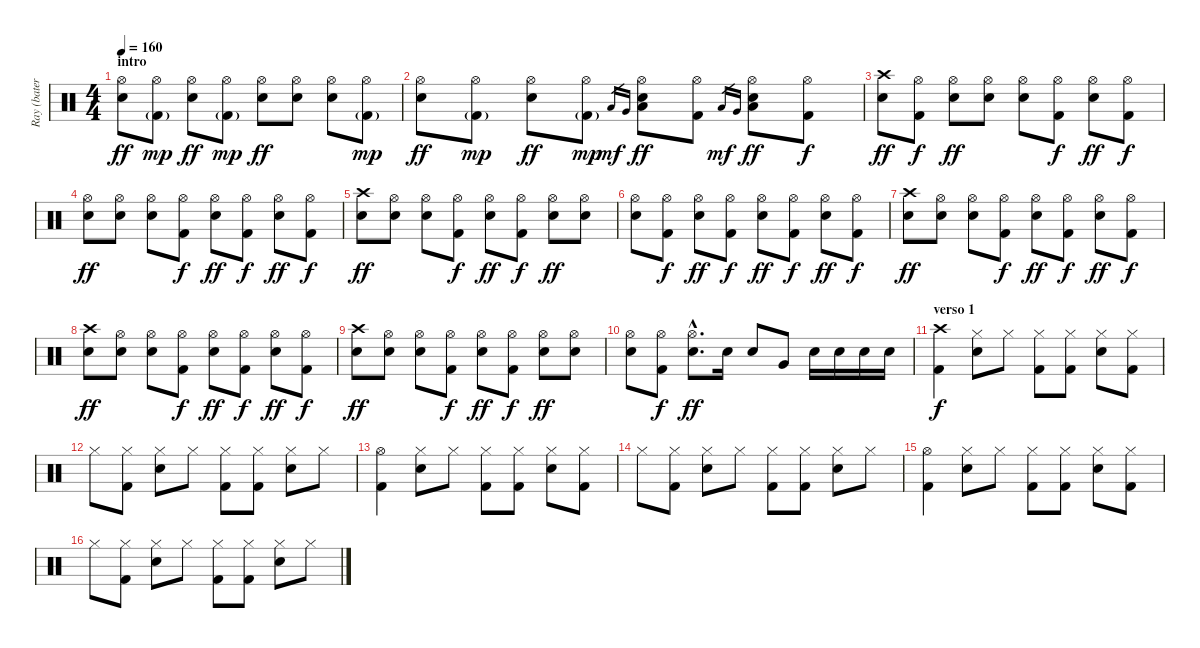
\track ("Ray (batería)" "Ray (bater") {instrument percussion}
\staff {score}
\articulation defaults
\ts (4 4)
\section ("" "intro")
\tempo 160
\clef neutral
\ks c
("Hi-Hat (open)" "Snare (hit) 2").8{dy ff} ("Hi-Hat (open)" "Kick (hit) 2"{g}).8{dy mp} ("Hi-Hat (open)" "Snare (hit) 2").8{dy ff} ("Hi-Hat (open)" "Kick (hit) 2"{g}).8{dy mp} ("Hi-Hat (open)" "Snare (hit) 2").8{dy ff} ("Hi-Hat (open)" "Snare (hit) 2").8 ("Hi-Hat (open)" "Snare (hit) 2").8 ("Hi-Hat (open)" "Kick (hit) 2"{g}).8{dy mp} |
("Hi-Hat (open)" "Snare (hit) 2").8{dy ff} ("Hi-Hat (open)" "Kick (hit) 2"{g}).8{dy mp} ("Hi-Hat (open)" "Snare (hit) 2").8{dy ff} ("Hi-Hat (open)" "Kick (hit) 2"{g}).8{dy mp} "Low Tom (hit)".16{gr dy mf} "Very Low Tom (hit)".16{gr} ("Hi-Hat (open)" "Snare (hit) 2" "Low Floor Tom (hit)").8{dy ff} ("Hi-Hat (open)" "Kick (hit) 2").8 "Low Tom (hit)".16{gr dy mf} "Very Low Tom (hit)".16{gr} ("Hi-Hat (open)" "Snare (hit) 2" "Low Floor Tom (hit)").8{dy ff} ("Hi-Hat (open)" "Kick (hit) 2").8{dy f} |
("Crash high (hit)" "Snare (hit) 2").8{dy ff} ("Hi-Hat (open)" "Kick (hit) 2").8{dy f} ("Hi-Hat (open)" "Snare (hit) 2").8{dy ff} ("Hi-Hat (open)" "Snare (hit) 2").8 ("Hi-Hat (open)" "Snare (hit) 2").8 ("Hi-Hat (open)" "Kick (hit) 2").8{dy f} ("Hi-Hat (open)" "Snare (hit) 2").8{dy ff} ("Hi-Hat (open)" "Kick (hit) 2").8{dy f} |
("Hi-Hat (open)" "Snare (hit) 2").8{dy ff} ("Hi-Hat (open)" "Snare (hit) 2").8 ("Hi-Hat (open)" "Snare (hit) 2").8 ("Hi-Hat (open)" "Kick (hit) 2").8{dy f} ("Hi-Hat (open)" "Snare (hit) 2").8{dy ff} ("Hi-Hat (open)" "Kick (hit) 2").8{dy f} ("Hi-Hat (open)" "Snare (hit) 2").8{dy ff} ("Hi-Hat (open)" "Kick (hit) 2").8{dy f} |
("Crash high (hit)" "Snare (hit) 2").8{dy ff} ("Hi-Hat (open)" "Snare (hit) 2").8 ("Hi-Hat (open)" "Snare (hit) 2").8 ("Hi-Hat (open)" "Kick (hit) 2").8{dy f} ("Hi-Hat (open)" "Snare (hit) 2").8{dy ff} ("Hi-Hat (open)" "Kick (hit) 2").8{dy f} ("Hi-Hat (open)" "Snare (hit) 2").8{dy ff} ("Hi-Hat (open)" "Snare (hit) 2").8 |
("Hi-Hat (open)" "Snare (hit) 2").8 ("Hi-Hat (open)" "Kick (hit) 2").8{dy f} ("Hi-Hat (open)" "Snare (hit) 2").8{dy ff} ("Hi-Hat (open)" "Kick (hit) 2").8{dy f} ("Hi-Hat (open)" "Snare (hit) 2").8{dy ff} ("Hi-Hat (open)" "Kick (hit) 2").8{dy f} ("Hi-Hat (open)" "Snare (hit) 2").8{dy ff} ("Hi-Hat (open)" "Kick (hit) 2").8{dy f} |
("Crash high (hit)" "Snare (hit) 2").8{dy ff} ("Hi-Hat (open)" "Snare (hit) 2").8 ("Hi-Hat (open)" "Snare (hit) 2").8 ("Hi-Hat (open)" "Kick (hit) 2").8{dy f} ("Hi-Hat (open)" "Snare (hit) 2").8{dy ff} ("Hi-Hat (open)" "Kick (hit) 2").8{dy f} ("Hi-Hat (open)" "Snare (hit) 2").8{dy ff} ("Hi-Hat (open)" "Kick (hit) 2").8{dy f} |
("Crash high (hit)" "Snare (hit) 2").8{dy ff} ("Hi-Hat (open)" "Snare (hit) 2").8 ("Hi-Hat (open)" "Snare (hit) 2").8 ("Hi-Hat (open)" "Kick (hit) 2").8{dy f} ("Hi-Hat (open)" "Snare (hit) 2").8{dy ff} ("Hi-Hat (open)" "Kick (hit) 2").8{dy f} ("Hi-Hat (open)" "Snare (hit) 2").8{dy ff} ("Hi-Hat (open)" "Kick (hit) 2").8{dy f} |
("Crash high (hit)" "Snare (hit) 2").8{dy ff} ("Hi-Hat (open)" "Snare (hit) 2").8 ("Hi-Hat (open)" "Snare (hit) 2").8 ("Hi-Hat (open)" "Kick (hit) 2").8{dy f} ("Hi-Hat (open)" "Snare (hit) 2").8{dy ff} ("Hi-Hat (open)" "Kick (hit) 2").8{dy f} ("Hi-Hat (open)" "Snare (hit) 2").8{dy ff} ("Hi-Hat (open)" "Snare (hit) 2").8 |
("Hi-Hat (open)" "Snare (hit) 2").8 ("Hi-Hat (open)" "Kick (hit) 2").8{dy f} ("Hi-Hat (open)"{hac} "Snare (hit) 2"{hac}).8{d dy ff} "Snare (hit) 2".16 "Snare (hit) 2".8 "Very Low Tom (hit)".8 "Snare (hit) 2".16 "Snare (hit) 2".16 "Snare (hit) 2".16 "Snare (hit) 2".16 |
\section ("" "verso 1")
("Crash high (hit)" "Kick (hit) 2").4{dy f} ("Hi-Hat (closed)" "Snare (hit) 2").8 "Hi-Hat (closed)".8 ("Hi-Hat (closed)" "Kick (hit) 2").8 ("Hi-Hat (closed)" "Kick (hit) 2").8 ("Hi-Hat (closed)" "Snare (hit) 2").8 ("Hi-Hat (closed)" "Kick (hit) 2").8 |
"Hi-Hat (closed)".8 ("Hi-Hat (closed)" "Kick (hit) 2").8 ("Hi-Hat (closed)" "Snare (hit) 2").8 "Hi-Hat (closed)".8 ("Hi-Hat (closed)" "Kick (hit) 2").8 ("Hi-Hat (closed)" "Kick (hit) 2").8 ("Hi-Hat (closed)" "Snare (hit) 2").8 "Hi-Hat (closed)".8 |
("Hi-Hat (open)" "Kick (hit) 2").4 ("Hi-Hat (closed)" "Snare (hit) 2").8 "Hi-Hat (closed)".8 ("Hi-Hat (closed)" "Kick (hit) 2").8 ("Hi-Hat (closed)" "Kick (hit) 2").8 ("Hi-Hat (closed)" "Snare (hit) 2").8 ("Hi-Hat (closed)" "Kick (hit) 2").8 |
"Hi-Hat (closed)".8 ("Hi-Hat (closed)" "Kick (hit) 2").8 ("Hi-Hat (closed)" "Snare (hit) 2").8 "Hi-Hat (closed)".8 ("Hi-Hat (closed)" "Kick (hit) 2").8 ("Hi-Hat (closed)" "Kick (hit) 2").8 ("Hi-Hat (closed)" "Snare (hit) 2").8 "Hi-Hat (closed)".8 |
("Hi-Hat (open)" "Kick (hit) 2").4 ("Hi-Hat (closed)" "Snare (hit) 2").8 "Hi-Hat (closed)".8 ("Hi-Hat (closed)" "Kick (hit) 2").8 ("Hi-Hat (closed)" "Kick (hit) 2").8 ("Hi-Hat (closed)" "Snare (hit) 2").8 ("Hi-Hat (closed)" "Kick (hit) 2").8 |
"Hi-Hat (closed)".8 ("Hi-Hat (closed)" "Kick (hit) 2").8 ("Hi-Hat (closed)" "Snare (hit) 2").8 "Hi-Hat (closed)".8 ("Hi-Hat (closed)" "Kick (hit) 2").8 ("Hi-Hat (closed)" "Kick (hit) 2").8 ("Hi-Hat (closed)" "Snare (hit) 2").8 "Hi-Hat (closed)".8
